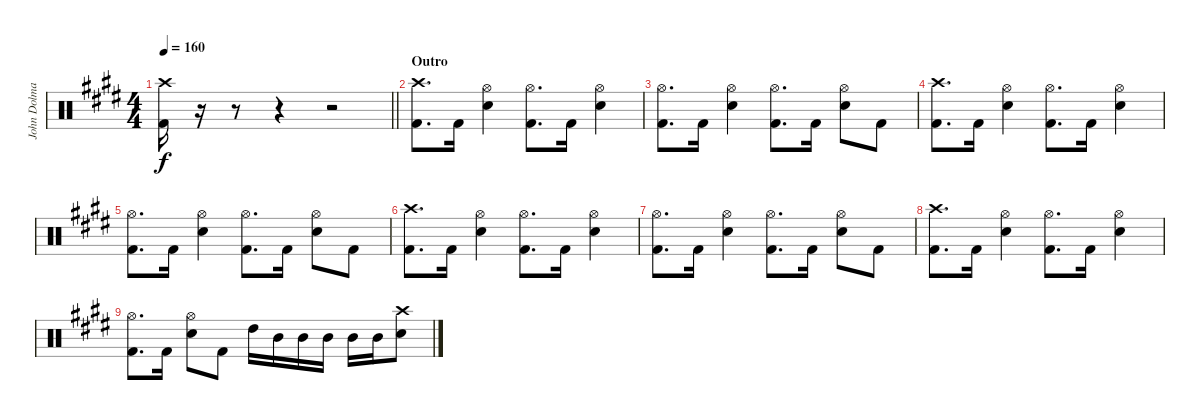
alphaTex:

\track ("John Dolmayan [Drums]" "John Dolma") {instrument percussion}
\staff {score}
\articulation defaults
\ts (4 4)
\tempo 160
\clef neutral
\barLineRight lightlight
\ks c#minor
("Crash high (hit)" "Kick (hit) 2").16{dy f} r.16{volume 0} r.8 r.4 r.2 |
\section ("" "Outro")
("Crash high (hit)" "Kick (hit) 2").8{d volume 13} "Kick (hit) 2".16 ("Hi-Hat (open)" "Electric Snare (hit)").4 ("Hi-Hat (open)" "Kick (hit) 2").8{d} "Kick (hit) 2".16 ("Hi-Hat (open)" "Electric Snare (hit)").4 |
("Hi-Hat (open)" "Kick (hit) 2").8{d} "Kick (hit) 2".16 ("Hi-Hat (open)" "Electric Snare (hit)").4 ("Hi-Hat (open)" "Kick (hit) 2").8{d} "Kick (hit) 2".16 ("Hi-Hat (open)" "Electric Snare (hit)").8 "Kick (hit) 2".8 |
("Crash high (hit)" "Kick (hit) 2").8{d} "Kick (hit) 2".16 ("Hi-Hat (open)" "Electric Snare (hit)").4 ("Hi-Hat (open)" "Kick (hit) 2").8{d} "Kick (hit) 2".16 ("Hi-Hat (open)" "Electric Snare (hit)").4 |
("Hi-Hat (open)" "Kick (hit) 2").8{d} "Kick (hit) 2".16 ("Hi-Hat (open)" "Electric Snare (hit)").4 ("Hi-Hat (open)" "Kick (hit) 2").8{d} "Kick (hit) 2".16 ("Hi-Hat (open)" "Electric Snare (hit)").8 "Kick (hit) 2".8 |
("Crash high (hit)" "Kick (hit) 2").8{d} "Kick (hit) 2".16 ("Hi-Hat (open)" "Electric Snare (hit)").4 ("Hi-Hat (open)" "Kick (hit) 2").8{d} "Kick (hit) 2".16 ("Hi-Hat (open)" "Electric Snare (hit)").4 |
("Hi-Hat (open)" "Kick (hit) 2").8{d} "Kick (hit) 2".16 ("Hi-Hat (open)" "Electric Snare (hit)").4 ("Hi-Hat (open)" "Kick (hit) 2").8{d} "Kick (hit) 2".16 ("Hi-Hat (open)" "Electric Snare (hit)").8 "Kick (hit) 2".8 |
("Crash high (hit)" "Kick (hit) 2").8{d} "Kick (hit) 2".16 ("Hi-Hat (open)" "Electric Snare (hit)").4 ("Hi-Hat (open)" "Kick (hit) 2").8{d} "Kick (hit) 2".16 ("Hi-Hat (open)" "Electric Snare (hit)").4 |
("Hi-Hat (open)" "Kick (hit) 2").8{d} "Kick (hit) 2".16 ("Hi-Hat (open)" "Electric Snare (hit)").8 "Kick (hit) 2".8 "High Tom (hit)".16 "Mid Tom (hit)".16 "Mid Tom (hit)".16 "Mid Tom (hit)".16 "Mid Tom (hit)".16 "Mid Tom (hit)".16 ("Crash high (hit)" "Electric Snare (hit)").8
